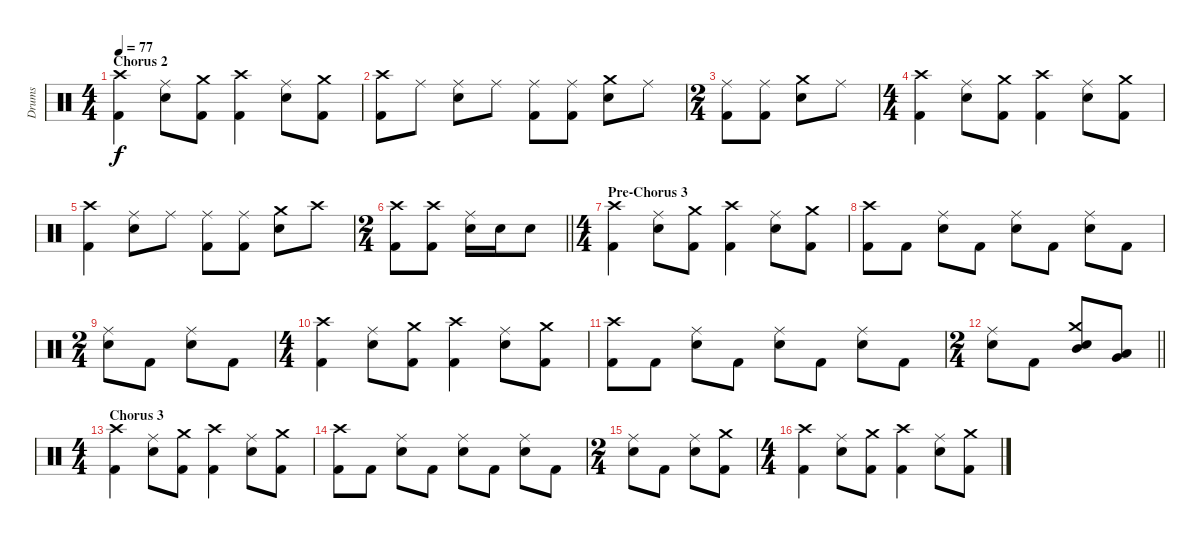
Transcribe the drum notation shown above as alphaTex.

\track ("Drums" "Drums") {instrument percussion}
\staff {score}
\articulation defaults
\ts (4 4)
\section ("" "Chorus 2")
\tempo 77
\clef neutral
\ks c
("Crash high (hit)" "Kick (hit) 2").4{dy f} ("Ride (middle)" "Electric Snare (hit)").8 ("Crash medium (hit)" "Kick (hit) 2").8 ("Crash high (hit)" "Kick (hit) 2").4 ("Ride (middle)" "Electric Snare (hit)").8 ("Crash medium (hit)" "Kick (hit) 2").8 |
("Crash high (hit)" "Kick (hit) 2").8 "Ride (middle)".8 ("Ride (middle)" "Electric Snare (hit)").8 "Ride (middle)".8 ("Ride (middle)" "Kick (hit) 2").8 ("Ride (middle)" "Kick (hit) 2").8 ("Crash medium (hit)" "Electric Snare (hit)").8 "Ride (middle)".8 |
\ts (2 4)
("Ride (middle)" "Kick (hit) 2").8 ("Ride (middle)" "Kick (hit) 2").8 ("Crash medium (hit)" "Electric Snare (hit)").8 "Ride (middle)".8 |
\ts (4 4)
("Crash high (hit)" "Kick (hit) 2").4 ("Ride (middle)" "Electric Snare (hit)").8 ("Crash medium (hit)" "Kick (hit) 2").8 ("Crash high (hit)" "Kick (hit) 2").4 ("Ride (middle)" "Electric Snare (hit)").8 ("Crash medium (hit)" "Kick (hit) 2").8 |
("Crash high (hit)" "Kick (hit) 2").4 ("Ride (middle)" "Electric Snare (hit)").8 "Ride (middle)".8 ("Ride (middle)" "Kick (hit) 2").8 ("Ride (middle)" "Kick (hit) 2").8 ("Crash medium (hit)" "Electric Snare (hit)").8 "Crash high (hit)".8 |
\ts (2 4)
\barLineRight lightlight
("Crash high (hit)" "Kick (hit) 2").8 ("Crash high (hit)" "Kick (hit) 2").8 ("Ride (middle)" "Electric Snare (hit)").16 "Electric Snare (hit)".16 "Electric Snare (hit)".8 |
\ts (4 4)
\section ("" "Pre-Chorus 3")
("Crash high (hit)" "Kick (hit) 2").4 ("Ride (middle)" "Electric Snare (hit)").8 ("Crash medium (hit)" "Kick (hit) 2").8 ("Crash high (hit)" "Kick (hit) 2").4 ("Ride (middle)" "Electric Snare (hit)").8 ("Crash medium (hit)" "Kick (hit) 2").8 |
("Crash high (hit)" "Kick (hit) 2").8 "Kick (hit) 2".8 ("Ride (middle)" "Electric Snare (hit)").8 "Kick (hit) 2".8 ("Ride (middle)" "Electric Snare (hit)").8 "Kick (hit) 2".8 ("Ride (middle)" "Electric Snare (hit)").8 "Kick (hit) 2".8 |
\ts (2 4)
("Ride (middle)" "Electric Snare (hit)").8 "Kick (hit) 2".8 ("Ride (middle)" "Electric Snare (hit)").8 "Kick (hit) 2".8 |
\ts (4 4)
("Crash high (hit)" "Kick (hit) 2").4 ("Ride (middle)" "Electric Snare (hit)").8 ("Crash medium (hit)" "Kick (hit) 2").8 ("Crash high (hit)" "Kick (hit) 2").4 ("Ride (middle)" "Electric Snare (hit)").8 ("Crash medium (hit)" "Kick (hit) 2").8 |
("Crash high (hit)" "Kick (hit) 2").8 "Kick (hit) 2".8 ("Ride (middle)" "Electric Snare (hit)").8 "Kick (hit) 2".8 ("Ride (middle)" "Electric Snare (hit)").8 "Kick (hit) 2".8 ("Ride (middle)" "Electric Snare (hit)").8 "Kick (hit) 2".8 |
\ts (2 4)
\barLineRight lightlight
("Ride (middle)" "Electric Snare (hit)").8 "Kick (hit) 2".8 ("Crash medium (hit)" "Mid Tom (hit)" "Electric Snare (hit)").8 ("Low Tom (hit)" "Very Low Tom (hit)").8 |
\ts (4 4)
\section ("" "Chorus 3")
("Crash high (hit)" "Kick (hit) 2").4 ("Ride (middle)" "Electric Snare (hit)").8 ("Crash medium (hit)" "Kick (hit) 2").8 ("Crash high (hit)" "Kick (hit) 2").4 ("Ride (middle)" "Electric Snare (hit)").8 ("Crash medium (hit)" "Kick (hit) 2").8 |
("Crash high (hit)" "Kick (hit) 2").8 "Kick (hit) 2".8 ("Ride (middle)" "Electric Snare (hit)").8 "Kick (hit) 2".8 ("Ride (middle)" "Electric Snare (hit)").8 "Kick (hit) 2".8 ("Ride (middle)" "Electric Snare (hit)").8 "Kick (hit) 2".8 |
\ts (2 4)
("Ride (middle)" "Electric Snare (hit)").8 "Kick (hit) 2".8 ("Ride (middle)" "Electric Snare (hit)").8 ("Crash medium (hit)" "Kick (hit) 2").8 |
\ts (4 4)
("Crash high (hit)" "Kick (hit) 2").4 ("Ride (middle)" "Electric Snare (hit)").8 ("Crash medium (hit)" "Kick (hit) 2").8 ("Crash high (hit)" "Kick (hit) 2").4 ("Ride (middle)" "Electric Snare (hit)").8 ("Crash medium (hit)" "Kick (hit) 2").8
